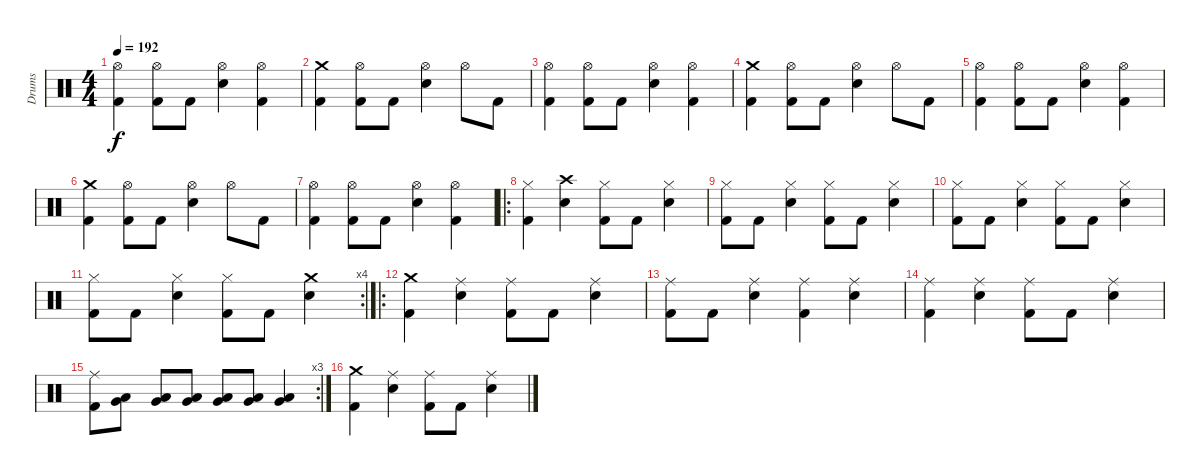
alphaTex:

\track ("Drums" "Drums") {instrument percussion}
\staff {score}
\articulation defaults
\ts (4 4)
\tempo 192
\clef neutral
\ks c
("Hi-Hat (open)" "Kick (hit) 2").4{dy f} ("Hi-Hat (open)" "Kick (hit) 2").8 "Kick (hit) 2".8 ("Hi-Hat (open)" "Electric Snare (hit)").4 ("Hi-Hat (open)" "Kick (hit) 2").4 |
("Crash medium (hit)" "Kick (hit) 2").4 ("Hi-Hat (open)" "Kick (hit) 2").8 "Kick (hit) 2".8 ("Hi-Hat (open)" "Electric Snare (hit)").4 "Hi-Hat (open)".8 "Kick (hit) 2".8 |
("Hi-Hat (open)" "Kick (hit) 2").4 ("Hi-Hat (open)" "Kick (hit) 2").8 "Kick (hit) 2".8 ("Hi-Hat (open)" "Electric Snare (hit)").4 ("Hi-Hat (open)" "Kick (hit) 2").4 |
("Crash medium (hit)" "Kick (hit) 2").4 ("Hi-Hat (open)" "Kick (hit) 2").8 "Kick (hit) 2".8 ("Hi-Hat (open)" "Electric Snare (hit)").4 "Hi-Hat (open)".8 "Kick (hit) 2".8 |
("Hi-Hat (open)" "Kick (hit) 2").4 ("Hi-Hat (open)" "Kick (hit) 2").8 "Kick (hit) 2".8 ("Hi-Hat (open)" "Electric Snare (hit)").4 ("Hi-Hat (open)" "Kick (hit) 2").4 |
("Crash medium (hit)" "Kick (hit) 2").4 ("Hi-Hat (open)" "Kick (hit) 2").8 "Kick (hit) 2".8 ("Hi-Hat (open)" "Electric Snare (hit)").4 "Hi-Hat (open)".8 "Kick (hit) 2".8 |
("Hi-Hat (open)" "Kick (hit) 2").4 ("Hi-Hat (open)" "Kick (hit) 2").8 "Kick (hit) 2".8 ("Hi-Hat (open)" "Electric Snare (hit)").4 ("Hi-Hat (open)" "Kick (hit) 2").4 |
\ro
("Hi-Hat (closed)" "Kick (hit) 2").4 ("Crash high (hit)" "Electric Snare (hit)").4 ("Hi-Hat (closed)" "Kick (hit) 2").8 "Kick (hit) 2".8 ("Hi-Hat (closed)" "Electric Snare (hit)").4 |
("Hi-Hat (closed)" "Kick (hit) 2").8 "Kick (hit) 2".8 ("Hi-Hat (closed)" "Electric Snare (hit)").4 ("Hi-Hat (closed)" "Kick (hit) 2").8 "Kick (hit) 2".8 ("Hi-Hat (closed)" "Electric Snare (hit)").4 |
("Hi-Hat (closed)" "Kick (hit) 2").8 "Kick (hit) 2".8 ("Hi-Hat (closed)" "Electric Snare (hit)").4 ("Hi-Hat (closed)" "Kick (hit) 2").8 "Kick (hit) 2".8 ("Hi-Hat (closed)" "Electric Snare (hit)").4 |
\rc 4
("Hi-Hat (closed)" "Kick (hit) 2").8 "Kick (hit) 2".8 ("Hi-Hat (closed)" "Electric Snare (hit)").4 ("Hi-Hat (closed)" "Kick (hit) 2").8 "Kick (hit) 2".8 ("Crash medium (hit)" "Electric Snare (hit)").4 |
\ro
("Crash medium (hit)" "Kick (hit) 2").4 ("Ride (middle)" "Electric Snare (hit)").4 ("Ride (middle)" "Kick (hit) 2").8 "Kick (hit) 2".8 ("Ride (middle)" "Electric Snare (hit)").4 |
("Ride (middle)" "Kick (hit) 2").8 "Kick (hit) 2".8 ("Ride (middle)" "Electric Snare (hit)").4 ("Ride (middle)" "Kick (hit) 2").4 ("Ride (middle)" "Electric Snare (hit)").4 |
("Ride (middle)" "Kick (hit) 2").4 ("Ride (middle)" "Electric Snare (hit)").4 ("Ride (middle)" "Kick (hit) 2").8 "Kick (hit) 2".8 ("Ride (middle)" "Electric Snare (hit)").4 |
\rc 3
("Ride (middle)" "Kick (hit) 2").8 ("Very Low Tom (hit)" "Low Floor Tom (hit)").8 ("Very Low Tom (hit)" "Low Floor Tom (hit)").8 ("Very Low Tom (hit)" "Low Floor Tom (hit)").8 ("Very Low Tom (hit)" "Low Floor Tom (hit)").8 ("Very Low Tom (hit)" "Low Floor Tom (hit)").8 ("Very Low Tom (hit)" "Low Floor Tom (hit)").4 |
("Crash medium (hit)" "Kick (hit) 2").4 ("Ride (middle)" "Electric Snare (hit)").4 ("Ride (middle)" "Kick (hit) 2").8 "Kick (hit) 2".8 ("Ride (middle)" "Electric Snare (hit)").4
